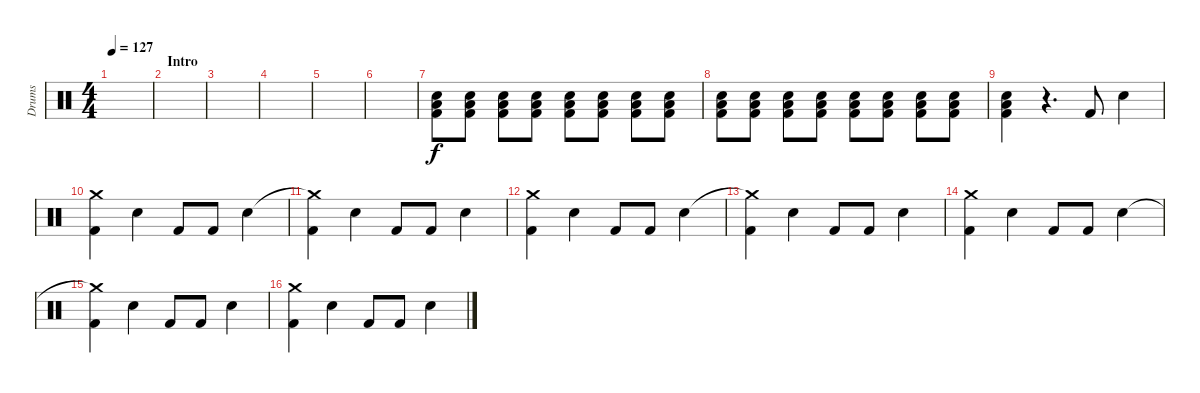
\track ("Drums" "Drums") {instrument percussion}
\staff {score}
\articulation defaults
\ts (4 4)
\tempo 127
\clef neutral
\ks c
|
\section ("" "Intro")
|
|
|
|
|
("Electric Snare (hit)" "Kick (hit) 2" "Low Floor Tom (hit)").8{volume 5} ("Electric Snare (hit)" "Kick (hit) 2" "Low Floor Tom (hit)").8 ("Electric Snare (hit)" "Kick (hit) 2" "Low Floor Tom (hit)").8 ("Electric Snare (hit)" "Kick (hit) 2" "Low Floor Tom (hit)").8 ("Electric Snare (hit)" "Kick (hit) 2" "Low Floor Tom (hit)").8 ("Electric Snare (hit)" "Kick (hit) 2" "Low Floor Tom (hit)").8{volume 8} ("Electric Snare (hit)" "Kick (hit) 2" "Low Floor Tom (hit)").8 ("Electric Snare (hit)" "Kick (hit) 2" "Low Floor Tom (hit)").8 |
("Electric Snare (hit)" "Kick (hit) 2" "Low Floor Tom (hit)").8{volume 12} ("Electric Snare (hit)" "Kick (hit) 2" "Low Floor Tom (hit)").8 ("Electric Snare (hit)" "Kick (hit) 2" "Low Floor Tom (hit)").8 ("Electric Snare (hit)" "Kick (hit) 2" "Low Floor Tom (hit)").8 ("Electric Snare (hit)" "Kick (hit) 2" "Low Floor Tom (hit)").8 ("Electric Snare (hit)" "Kick (hit) 2" "Low Floor Tom (hit)").8{volume 16} ("Electric Snare (hit)" "Kick (hit) 2" "Low Floor Tom (hit)").8 ("Electric Snare (hit)" "Kick (hit) 2" "Low Floor Tom (hit)").8 |
("Electric Snare (hit)" "Kick (hit) 2" "Low Floor Tom (hit)").4 r.4{d} "Kick (hit) 2".8 "Electric Snare (hit)".4 |
("Crash medium (hit)" "Kick (hit) 2").4 "Electric Snare (hit)".4 "Kick (hit) 2".8 "Kick (hit) 2".8 "Electric Snare (hit)".4 |
("Crash medium (hit)"{t} "Kick (hit) 2").4 "Electric Snare (hit)".4 "Kick (hit) 2".8 "Kick (hit) 2".8 "Electric Snare (hit)".4 |
("Crash medium (hit)" "Kick (hit) 2").4 "Electric Snare (hit)".4 "Kick (hit) 2".8 "Kick (hit) 2".8 "Electric Snare (hit)".4 |
("Crash medium (hit)"{t} "Kick (hit) 2").4 "Electric Snare (hit)".4 "Kick (hit) 2".8 "Kick (hit) 2".8 "Electric Snare (hit)".4 |
("Crash medium (hit)" "Kick (hit) 2").4 "Electric Snare (hit)".4 "Kick (hit) 2".8 "Kick (hit) 2".8 "Electric Snare (hit)".4 |
("Crash medium (hit)"{t} "Kick (hit) 2").4 "Electric Snare (hit)".4 "Kick (hit) 2".8 "Kick (hit) 2".8 "Electric Snare (hit)".4 |
("Crash medium (hit)" "Kick (hit) 2").4 "Electric Snare (hit)".4 "Kick (hit) 2".8 "Kick (hit) 2".8 "Electric Snare (hit)".4
